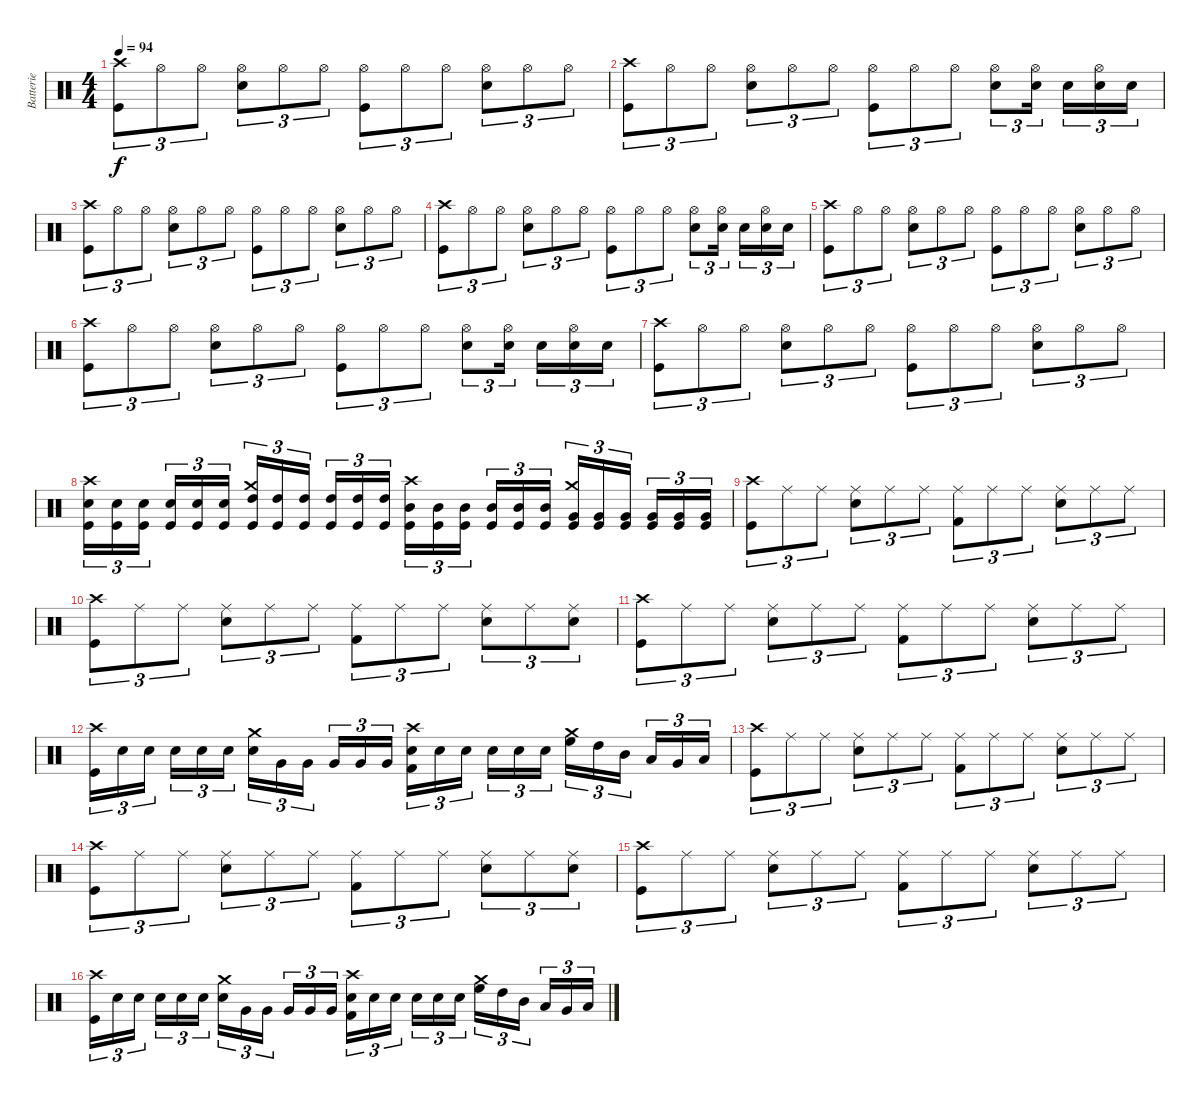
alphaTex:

\track ("Batterie" "Batterie") {instrument percussion}
\staff {score}
\articulation defaults
\ts (4 4)
\tempo 94
\clef neutral
\ks c
("Crash high (hit)" "Kick (hit)").8{tu (3 2) dy f} "Hi-Hat (open)".8{tu (3 2)} "Hi-Hat (open)".8{tu (3 2)} ("Hi-Hat (open)" "Snare (hit) 2").8{tu (3 2)} "Hi-Hat (open)".8{tu (3 2)} "Hi-Hat (open)".8{tu (3 2)} ("Hi-Hat (open)" "Kick (hit)").8{tu (3 2)} "Hi-Hat (open)".8{tu (3 2)} "Hi-Hat (open)".8{tu (3 2)} ("Hi-Hat (open)" "Snare (hit) 2").8{tu (3 2)} "Hi-Hat (open)".8{tu (3 2)} "Hi-Hat (open)".8{tu (3 2)} |
("Crash high (hit)" "Kick (hit)").8{tu (3 2)} "Hi-Hat (open)".8{tu (3 2)} "Hi-Hat (open)".8{tu (3 2)} ("Hi-Hat (open)" "Snare (hit) 2").8{tu (3 2)} "Hi-Hat (open)".8{tu (3 2)} "Hi-Hat (open)".8{tu (3 2)} ("Hi-Hat (open)" "Kick (hit)").8{tu (3 2)} "Hi-Hat (open)".8{tu (3 2)} "Hi-Hat (open)".8{tu (3 2)} ("Hi-Hat (open)" "Snare (hit) 2").8{tu (3 2)} ("Hi-Hat (open)" "Snare (hit) 2").16{tu (3 2)} "Snare (hit) 2".16{tu (3 2)} ("Hi-Hat (open)" "Snare (hit) 2").16{tu (3 2)} "Snare (hit) 2".16{tu (3 2)} |
("Crash high (hit)" "Kick (hit)").8{tu (3 2)} "Hi-Hat (open)".8{tu (3 2)} "Hi-Hat (open)".8{tu (3 2)} ("Hi-Hat (open)" "Snare (hit) 2").8{tu (3 2)} "Hi-Hat (open)".8{tu (3 2)} "Hi-Hat (open)".8{tu (3 2)} ("Hi-Hat (open)" "Kick (hit)").8{tu (3 2)} "Hi-Hat (open)".8{tu (3 2)} "Hi-Hat (open)".8{tu (3 2)} ("Hi-Hat (open)" "Snare (hit) 2").8{tu (3 2)} "Hi-Hat (open)".8{tu (3 2)} "Hi-Hat (open)".8{tu (3 2)} |
("Crash high (hit)" "Kick (hit)").8{tu (3 2)} "Hi-Hat (open)".8{tu (3 2)} "Hi-Hat (open)".8{tu (3 2)} ("Hi-Hat (open)" "Snare (hit) 2").8{tu (3 2)} "Hi-Hat (open)".8{tu (3 2)} "Hi-Hat (open)".8{tu (3 2)} ("Hi-Hat (open)" "Kick (hit)").8{tu (3 2)} "Hi-Hat (open)".8{tu (3 2)} "Hi-Hat (open)".8{tu (3 2)} ("Hi-Hat (open)" "Snare (hit) 2").8{tu (3 2)} ("Hi-Hat (open)" "Snare (hit) 2").16{tu (3 2)} "Snare (hit) 2".16{tu (3 2)} ("Hi-Hat (open)" "Snare (hit) 2").16{tu (3 2)} "Snare (hit) 2".16{tu (3 2)} |
("Crash high (hit)" "Kick (hit)").8{tu (3 2)} "Hi-Hat (open)".8{tu (3 2)} "Hi-Hat (open)".8{tu (3 2)} ("Hi-Hat (open)" "Snare (hit) 2").8{tu (3 2)} "Hi-Hat (open)".8{tu (3 2)} "Hi-Hat (open)".8{tu (3 2)} ("Hi-Hat (open)" "Kick (hit)").8{tu (3 2)} "Hi-Hat (open)".8{tu (3 2)} "Hi-Hat (open)".8{tu (3 2)} ("Hi-Hat (open)" "Snare (hit) 2").8{tu (3 2)} "Hi-Hat (open)".8{tu (3 2)} "Hi-Hat (open)".8{tu (3 2)} |
("Crash high (hit)" "Kick (hit)").8{tu (3 2)} "Hi-Hat (open)".8{tu (3 2)} "Hi-Hat (open)".8{tu (3 2)} ("Hi-Hat (open)" "Snare (hit) 2").8{tu (3 2)} "Hi-Hat (open)".8{tu (3 2)} "Hi-Hat (open)".8{tu (3 2)} ("Hi-Hat (open)" "Kick (hit)").8{tu (3 2)} "Hi-Hat (open)".8{tu (3 2)} "Hi-Hat (open)".8{tu (3 2)} ("Hi-Hat (open)" "Snare (hit) 2").8{tu (3 2)} ("Hi-Hat (open)" "Snare (hit) 2").16{tu (3 2)} "Snare (hit) 2".16{tu (3 2)} ("Hi-Hat (open)" "Snare (hit) 2").16{tu (3 2)} "Snare (hit) 2".16{tu (3 2)} |
("Crash high (hit)" "Kick (hit)").8{tu (3 2)} "Hi-Hat (open)".8{tu (3 2)} "Hi-Hat (open)".8{tu (3 2)} ("Hi-Hat (open)" "Snare (hit) 2").8{tu (3 2)} "Hi-Hat (open)".8{tu (3 2)} "Hi-Hat (open)".8{tu (3 2)} ("Hi-Hat (open)" "Kick (hit)").8{tu (3 2)} "Hi-Hat (open)".8{tu (3 2)} "Hi-Hat (open)".8{tu (3 2)} ("Hi-Hat (open)" "Snare (hit) 2").8{tu (3 2)} "Hi-Hat (open)".8{tu (3 2)} "Hi-Hat (open)".8{tu (3 2)} |
("Crash high (hit)" "Snare (hit) 2" "Kick (hit)").16{tu (3 2)} ("Snare (hit) 2" "Kick (hit)").16{tu (3 2)} ("Snare (hit) 2" "Kick (hit)").16{tu (3 2)} ("Snare (hit) 2" "Kick (hit)").16{tu (3 2)} ("Snare (hit) 2" "Kick (hit)").16{tu (3 2)} ("Snare (hit) 2" "Kick (hit)").16{tu (3 2)} ("Crash medium (hit)" "High Tom (hit)" "Kick (hit)").16{tu (3 2)} ("High Tom (hit)" "Kick (hit)").16{tu (3 2)} ("High Tom (hit)" "Kick (hit)").16{tu (3 2)} ("High Tom (hit)" "Kick (hit)").16{tu (3 2)} ("High Tom (hit)" "Kick (hit)").16{tu (3 2)} ("High Tom (hit)" "Kick (hit)").16{tu (3 2)} ("Crash high (hit)" "Mid Tom (hit)" "Kick (hit)").16{tu (3 2)} ("Mid Tom (hit)" "Kick (hit)").16{tu (3 2)} ("Mid Tom (hit)" "Kick (hit)").16{tu (3 2)} ("Mid Tom (hit)" "Kick (hit)").16{tu (3 2)} ("Mid Tom (hit)" "Kick (hit)").16{tu (3 2)} ("Mid Tom (hit)" "Kick (hit)").16{tu (3 2)} ("Crash medium (hit)" "Very Low Tom (hit)" "Kick (hit)").16{tu (3 2)} ("Very Low Tom (hit)" "Kick (hit)").16{tu (3 2)} ("Very Low Tom (hit)" "Kick (hit)").16{tu (3 2)} ("Very Low Tom (hit)" "Kick (hit)").16{tu (3 2)} ("Very Low Tom (hit)" "Kick (hit)").16{tu (3 2)} ("Very Low Tom (hit)" "Kick (hit)").16{tu (3 2)} |
("Crash high (hit)" "Kick (hit)").8{tu (3 2)} "Ride (middle)".8{tu (3 2)} "Ride (middle)".8{tu (3 2)} ("Ride (middle)" "Snare (hit) 2").8{tu (3 2)} "Ride (middle)".8{tu (3 2)} "Ride (middle)".8{tu (3 2)} ("Ride (middle)" "Kick (hit) 2").8{tu (3 2)} "Ride (middle)".8{tu (3 2)} "Ride (middle)".8{tu (3 2)} ("Ride (middle)" "Snare (hit) 2").8{tu (3 2)} "Ride (middle)".8{tu (3 2)} "Ride (middle)".8{tu (3 2)} |
("Crash high (hit)" "Kick (hit)").8{tu (3 2)} "Ride (middle)".8{tu (3 2)} "Ride (middle)".8{tu (3 2)} ("Ride (middle)" "Snare (hit) 2").8{tu (3 2)} "Ride (middle)".8{tu (3 2)} "Ride (middle)".8{tu (3 2)} ("Ride (middle)" "Kick (hit) 2").8{tu (3 2)} "Ride (middle)".8{tu (3 2)} "Ride (middle)".8{tu (3 2)} ("Ride (middle)" "Snare (hit) 2").8{tu (3 2)} "Ride (middle)".8{tu (3 2)} ("Ride (middle)" "Snare (hit) 2").8{tu (3 2)} |
("Crash high (hit)" "Kick (hit)").8{tu (3 2)} "Ride (middle)".8{tu (3 2)} "Ride (middle)".8{tu (3 2)} ("Ride (middle)" "Snare (hit) 2").8{tu (3 2)} "Ride (middle)".8{tu (3 2)} "Ride (middle)".8{tu (3 2)} ("Ride (middle)" "Kick (hit) 2").8{tu (3 2)} "Ride (middle)".8{tu (3 2)} "Ride (middle)".8{tu (3 2)} ("Ride (middle)" "Snare (hit) 2").8{tu (3 2)} "Ride (middle)".8{tu (3 2)} "Ride (middle)".8{tu (3 2)} |
("Crash high (hit)" "Kick (hit)").16{tu (3 2)} "Snare (hit) 2".16{tu (3 2)} "Snare (hit) 2".16{tu (3 2)} "Snare (hit) 2".16{tu (3 2)} "Snare (hit) 2".16{tu (3 2)} "Snare (hit) 2".16{tu (3 2)} ("Crash medium (hit)" "Snare (hit) 2").16{tu (3 2)} "Very Low Tom (hit)".16{tu (3 2)} "Very Low Tom (hit)".16{tu (3 2)} "Very Low Tom (hit)".16{tu (3 2)} "Very Low Tom (hit)".16{tu (3 2)} "Very Low Tom (hit)".16{tu (3 2)} ("Crash high (hit)" "Snare (hit) 2" "Kick (hit) 2").16{tu (3 2)} "Snare (hit) 2".16{tu (3 2)} "Snare (hit) 2".16{tu (3 2)} "Snare (hit) 2".16{tu (3 2)} "Snare (hit) 2".16{tu (3 2)} "Snare (hit) 2".16{tu (3 2)} ("Crash medium (hit)" "High Floor Tom (hit)").16{tu (3 2)} "High Tom (hit)".16{tu (3 2)} "Mid Tom (hit)".16{tu (3 2)} "Low Tom (hit)".16{tu (3 2)} "Very Low Tom (hit)".16{tu (3 2)} "Low Floor Tom (hit)".16{tu (3 2)} |
("Crash high (hit)" "Kick (hit)").8{tu (3 2)} "Ride (middle)".8{tu (3 2)} "Ride (middle)".8{tu (3 2)} ("Ride (middle)" "Snare (hit) 2").8{tu (3 2)} "Ride (middle)".8{tu (3 2)} "Ride (middle)".8{tu (3 2)} ("Ride (middle)" "Kick (hit) 2").8{tu (3 2)} "Ride (middle)".8{tu (3 2)} "Ride (middle)".8{tu (3 2)} ("Ride (middle)" "Snare (hit) 2").8{tu (3 2)} "Ride (middle)".8{tu (3 2)} "Ride (middle)".8{tu (3 2)} |
("Crash high (hit)" "Kick (hit)").8{tu (3 2)} "Ride (middle)".8{tu (3 2)} "Ride (middle)".8{tu (3 2)} ("Ride (middle)" "Snare (hit) 2").8{tu (3 2)} "Ride (middle)".8{tu (3 2)} "Ride (middle)".8{tu (3 2)} ("Ride (middle)" "Kick (hit) 2").8{tu (3 2)} "Ride (middle)".8{tu (3 2)} "Ride (middle)".8{tu (3 2)} ("Ride (middle)" "Snare (hit) 2").8{tu (3 2)} "Ride (middle)".8{tu (3 2)} ("Ride (middle)" "Snare (hit) 2").8{tu (3 2)} |
("Crash high (hit)" "Kick (hit)").8{tu (3 2)} "Ride (middle)".8{tu (3 2)} "Ride (middle)".8{tu (3 2)} ("Ride (middle)" "Snare (hit) 2").8{tu (3 2)} "Ride (middle)".8{tu (3 2)} "Ride (middle)".8{tu (3 2)} ("Ride (middle)" "Kick (hit) 2").8{tu (3 2)} "Ride (middle)".8{tu (3 2)} "Ride (middle)".8{tu (3 2)} ("Ride (middle)" "Snare (hit) 2").8{tu (3 2)} "Ride (middle)".8{tu (3 2)} "Ride (middle)".8{tu (3 2)} |
("Crash high (hit)" "Kick (hit)").16{tu (3 2)} "Snare (hit) 2".16{tu (3 2)} "Snare (hit) 2".16{tu (3 2)} "Snare (hit) 2".16{tu (3 2)} "Snare (hit) 2".16{tu (3 2)} "Snare (hit) 2".16{tu (3 2)} ("Crash medium (hit)" "Snare (hit) 2").16{tu (3 2)} "Very Low Tom (hit)".16{tu (3 2)} "Very Low Tom (hit)".16{tu (3 2)} "Very Low Tom (hit)".16{tu (3 2)} "Very Low Tom (hit)".16{tu (3 2)} "Very Low Tom (hit)".16{tu (3 2)} ("Crash high (hit)" "Snare (hit) 2" "Kick (hit) 2").16{tu (3 2)} "Snare (hit) 2".16{tu (3 2)} "Snare (hit) 2".16{tu (3 2)} "Snare (hit) 2".16{tu (3 2)} "Snare (hit) 2".16{tu (3 2)} "Snare (hit) 2".16{tu (3 2)} ("Crash medium (hit)" "High Floor Tom (hit)").16{tu (3 2)} "High Tom (hit)".16{tu (3 2)} "Mid Tom (hit)".16{tu (3 2)} "Low Tom (hit)".16{tu (3 2)} "Very Low Tom (hit)".16{tu (3 2)} "Low Floor Tom (hit)".16{tu (3 2)}
